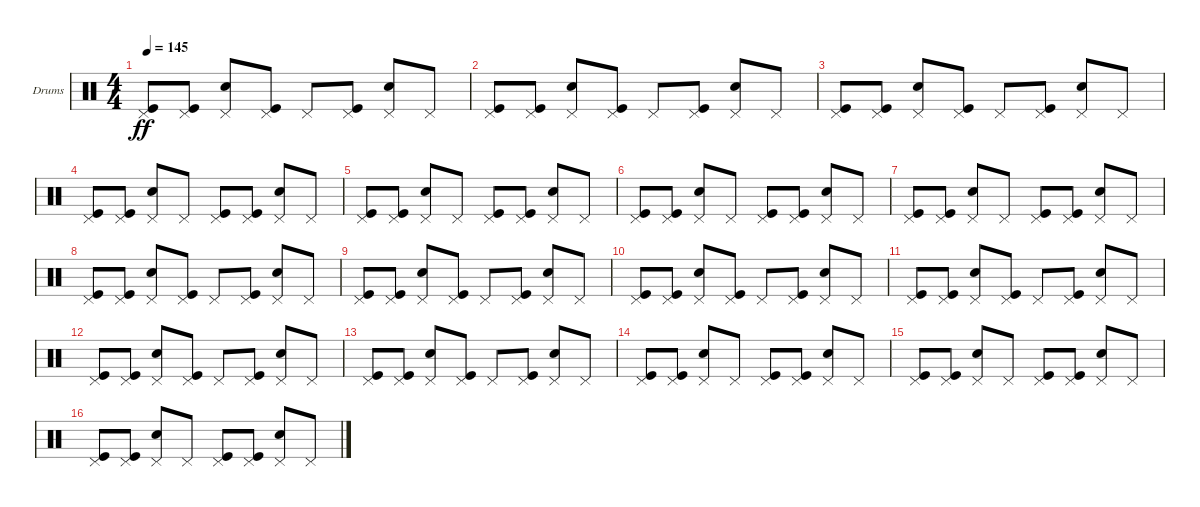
\bracketExtendMode groupsimilarinstruments
\firstSystemTrackNameOrientation horizontal
\otherSystemsTrackNameOrientation horizontal
\track ("Fabrizio Moretti" "Drums") {instrument percussion}
\staff {score}
\articulation defaults
\ts (4 4)
\tempo 145
\clef neutral
\ks c
("Pedal Hi-Hat (hit)" "Kick (hit)").8{dy ff} ("Pedal Hi-Hat (hit)" "Kick (hit)").8 ("Pedal Hi-Hat (hit)" "Snare (hit) 2").8 ("Pedal Hi-Hat (hit)" "Kick (hit)").8 "Pedal Hi-Hat (hit)".8 ("Pedal Hi-Hat (hit)" "Kick (hit)").8 ("Pedal Hi-Hat (hit)" "Snare (hit) 2").8 "Pedal Hi-Hat (hit)".8 |
("Pedal Hi-Hat (hit)" "Kick (hit)").8 ("Pedal Hi-Hat (hit)" "Kick (hit)").8 ("Pedal Hi-Hat (hit)" "Snare (hit) 2").8 ("Pedal Hi-Hat (hit)" "Kick (hit)").8 "Pedal Hi-Hat (hit)".8 ("Pedal Hi-Hat (hit)" "Kick (hit)").8 ("Pedal Hi-Hat (hit)" "Snare (hit) 2").8 "Pedal Hi-Hat (hit)".8 |
("Pedal Hi-Hat (hit)" "Kick (hit)").8 ("Pedal Hi-Hat (hit)" "Kick (hit)").8 ("Pedal Hi-Hat (hit)" "Snare (hit) 2").8 ("Pedal Hi-Hat (hit)" "Kick (hit)").8 "Pedal Hi-Hat (hit)".8 ("Pedal Hi-Hat (hit)" "Kick (hit)").8 ("Pedal Hi-Hat (hit)" "Snare (hit) 2").8 "Pedal Hi-Hat (hit)".8 |
("Pedal Hi-Hat (hit)" "Kick (hit)").8 ("Pedal Hi-Hat (hit)" "Kick (hit)").8 ("Pedal Hi-Hat (hit)" "Snare (hit) 2").8 "Pedal Hi-Hat (hit)".8 ("Pedal Hi-Hat (hit)" "Kick (hit)").8 ("Pedal Hi-Hat (hit)" "Kick (hit)").8 ("Pedal Hi-Hat (hit)" "Snare (hit) 2").8 "Pedal Hi-Hat (hit)".8 |
("Pedal Hi-Hat (hit)" "Kick (hit)").8 ("Pedal Hi-Hat (hit)" "Kick (hit)").8 ("Pedal Hi-Hat (hit)" "Snare (hit) 2").8 "Pedal Hi-Hat (hit)".8 ("Pedal Hi-Hat (hit)" "Kick (hit)").8 ("Pedal Hi-Hat (hit)" "Kick (hit)").8 ("Pedal Hi-Hat (hit)" "Snare (hit) 2").8 "Pedal Hi-Hat (hit)".8 |
("Pedal Hi-Hat (hit)" "Kick (hit)").8 ("Pedal Hi-Hat (hit)" "Kick (hit)").8 ("Pedal Hi-Hat (hit)" "Snare (hit) 2").8 "Pedal Hi-Hat (hit)".8 ("Pedal Hi-Hat (hit)" "Kick (hit)").8 ("Pedal Hi-Hat (hit)" "Kick (hit)").8 ("Pedal Hi-Hat (hit)" "Snare (hit) 2").8 "Pedal Hi-Hat (hit)".8 |
("Pedal Hi-Hat (hit)" "Kick (hit)").8 ("Pedal Hi-Hat (hit)" "Kick (hit)").8 ("Pedal Hi-Hat (hit)" "Snare (hit) 2").8 "Pedal Hi-Hat (hit)".8 ("Pedal Hi-Hat (hit)" "Kick (hit)").8 ("Pedal Hi-Hat (hit)" "Kick (hit)").8 ("Pedal Hi-Hat (hit)" "Snare (hit) 2").8 "Pedal Hi-Hat (hit)".8 |
("Pedal Hi-Hat (hit)" "Kick (hit)").8 ("Pedal Hi-Hat (hit)" "Kick (hit)").8 ("Pedal Hi-Hat (hit)" "Snare (hit) 2").8 ("Pedal Hi-Hat (hit)" "Kick (hit)").8 "Pedal Hi-Hat (hit)".8 ("Pedal Hi-Hat (hit)" "Kick (hit)").8 ("Pedal Hi-Hat (hit)" "Snare (hit) 2").8 "Pedal Hi-Hat (hit)".8 |
("Pedal Hi-Hat (hit)" "Kick (hit)").8 ("Pedal Hi-Hat (hit)" "Kick (hit)").8 ("Pedal Hi-Hat (hit)" "Snare (hit) 2").8 ("Pedal Hi-Hat (hit)" "Kick (hit)").8 "Pedal Hi-Hat (hit)".8 ("Pedal Hi-Hat (hit)" "Kick (hit)").8 ("Pedal Hi-Hat (hit)" "Snare (hit) 2").8 "Pedal Hi-Hat (hit)".8 |
("Pedal Hi-Hat (hit)" "Kick (hit)").8 ("Pedal Hi-Hat (hit)" "Kick (hit)").8 ("Pedal Hi-Hat (hit)" "Snare (hit) 2").8 ("Pedal Hi-Hat (hit)" "Kick (hit)").8 "Pedal Hi-Hat (hit)".8 ("Pedal Hi-Hat (hit)" "Kick (hit)").8 ("Pedal Hi-Hat (hit)" "Snare (hit) 2").8 "Pedal Hi-Hat (hit)".8 |
("Pedal Hi-Hat (hit)" "Kick (hit)").8 ("Pedal Hi-Hat (hit)" "Kick (hit)").8 ("Pedal Hi-Hat (hit)" "Snare (hit) 2").8 ("Pedal Hi-Hat (hit)" "Kick (hit)").8 "Pedal Hi-Hat (hit)".8 ("Pedal Hi-Hat (hit)" "Kick (hit)").8 ("Pedal Hi-Hat (hit)" "Snare (hit) 2").8 "Pedal Hi-Hat (hit)".8 |
("Pedal Hi-Hat (hit)" "Kick (hit)").8 ("Pedal Hi-Hat (hit)" "Kick (hit)").8 ("Pedal Hi-Hat (hit)" "Snare (hit) 2").8 ("Pedal Hi-Hat (hit)" "Kick (hit)").8 "Pedal Hi-Hat (hit)".8 ("Pedal Hi-Hat (hit)" "Kick (hit)").8 ("Pedal Hi-Hat (hit)" "Snare (hit) 2").8 "Pedal Hi-Hat (hit)".8 |
("Pedal Hi-Hat (hit)" "Kick (hit)").8 ("Pedal Hi-Hat (hit)" "Kick (hit)").8 ("Pedal Hi-Hat (hit)" "Snare (hit) 2").8 ("Pedal Hi-Hat (hit)" "Kick (hit)").8 "Pedal Hi-Hat (hit)".8 ("Pedal Hi-Hat (hit)" "Kick (hit)").8 ("Pedal Hi-Hat (hit)" "Snare (hit) 2").8 "Pedal Hi-Hat (hit)".8 |
("Pedal Hi-Hat (hit)" "Kick (hit)").8 ("Pedal Hi-Hat (hit)" "Kick (hit)").8 ("Pedal Hi-Hat (hit)" "Snare (hit) 2").8 "Pedal Hi-Hat (hit)".8 ("Pedal Hi-Hat (hit)" "Kick (hit)").8 ("Pedal Hi-Hat (hit)" "Kick (hit)").8 ("Pedal Hi-Hat (hit)" "Snare (hit) 2").8 "Pedal Hi-Hat (hit)".8 |
("Pedal Hi-Hat (hit)" "Kick (hit)").8 ("Pedal Hi-Hat (hit)" "Kick (hit)").8 ("Pedal Hi-Hat (hit)" "Snare (hit) 2").8 "Pedal Hi-Hat (hit)".8 ("Pedal Hi-Hat (hit)" "Kick (hit)").8 ("Pedal Hi-Hat (hit)" "Kick (hit)").8 ("Pedal Hi-Hat (hit)" "Snare (hit) 2").8 "Pedal Hi-Hat (hit)".8 |
("Pedal Hi-Hat (hit)" "Kick (hit)").8 ("Pedal Hi-Hat (hit)" "Kick (hit)").8 ("Pedal Hi-Hat (hit)" "Snare (hit) 2").8 "Pedal Hi-Hat (hit)".8 ("Pedal Hi-Hat (hit)" "Kick (hit)").8 ("Pedal Hi-Hat (hit)" "Kick (hit)").8 ("Pedal Hi-Hat (hit)" "Snare (hit) 2").8 "Pedal Hi-Hat (hit)".8
